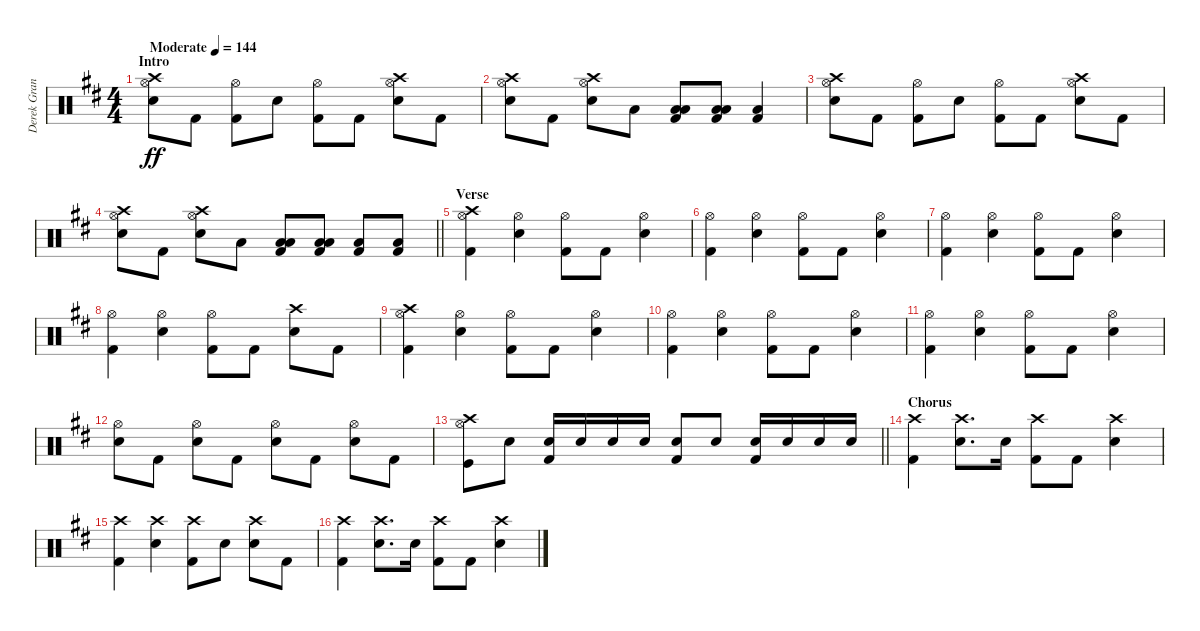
\track ("Derek Grant - Drums" "Derek Gran") {instrument percussion}
\staff {score}
\articulation defaults
\ts (4 4)
\section ("" "Intro")
\tempo (144 "Moderate")
\clef neutral
\ks d
("Crash high (hit)" "Hi-Hat (open)" "Snare (hit) 2").8{dy ff} "Kick (hit) 2".8 ("Hi-Hat (open)" "Kick (hit) 2").8 "Snare (hit) 2".8 ("Hi-Hat (open)" "Kick (hit) 2").8 "Kick (hit) 2".8 ("Crash high (hit)" "Hi-Hat (open)" "Snare (hit) 2").8 "Kick (hit) 2".8 |
("Crash high (hit)" "Hi-Hat (open)" "Snare (hit) 2").8 "Kick (hit) 2".8 ("Crash high (hit)" "Hi-Hat (open)" "Snare (hit) 2").8 "Low Tom (hit)".8 ("Low Floor Tom (hit)" "Kick (hit) 2" "Low Tom (hit)").8 ("Low Floor Tom (hit)" "Kick (hit) 2" "Low Tom (hit)").8 ("Low Floor Tom (hit)" "Kick (hit) 2").4 |
("Crash high (hit)" "Hi-Hat (open)" "Snare (hit) 2").8 "Kick (hit) 2".8 ("Hi-Hat (open)" "Kick (hit) 2").8 "Snare (hit) 2".8 ("Hi-Hat (open)" "Kick (hit) 2").8 "Kick (hit) 2".8 ("Crash high (hit)" "Hi-Hat (open)" "Snare (hit) 2").8 "Kick (hit) 2".8 |
\barLineRight lightlight
("Crash high (hit)" "Hi-Hat (open)" "Snare (hit) 2").8 "Kick (hit) 2".8 ("Crash high (hit)" "Hi-Hat (open)" "Snare (hit) 2").8 "Low Tom (hit)".8 ("Low Floor Tom (hit)" "Kick (hit) 2" "Low Tom (hit)").8 ("Low Floor Tom (hit)" "Kick (hit) 2" "Low Tom (hit)").8 ("Low Floor Tom (hit)" "Kick (hit) 2").8 ("Low Floor Tom (hit)" "Kick (hit) 2").8 |
\section ("" "Verse")
("Crash high (hit)" "Kick (hit) 2" "Hi-Hat (open)").4 ("Snare (hit) 2" "Hi-Hat (open)").4 ("Hi-Hat (open)" "Kick (hit) 2").8 "Kick (hit) 2".8 ("Snare (hit) 2" "Hi-Hat (open)").4 |
("Hi-Hat (open)" "Kick (hit) 2").4 ("Snare (hit) 2" "Hi-Hat (open)").4 ("Hi-Hat (open)" "Kick (hit) 2").8 "Kick (hit) 2".8 ("Snare (hit) 2" "Hi-Hat (open)").4 |
("Hi-Hat (open)" "Kick (hit) 2").4 ("Snare (hit) 2" "Hi-Hat (open)").4 ("Hi-Hat (open)" "Kick (hit) 2").8 "Kick (hit) 2".8 ("Snare (hit) 2" "Hi-Hat (open)").4 |
("Hi-Hat (open)" "Kick (hit) 2").4 ("Snare (hit) 2" "Hi-Hat (open)").4 ("Hi-Hat (open)" "Kick (hit) 2").8 "Kick (hit) 2".8 ("Snare (hit) 2" "Crash high (hit)").8 "Kick (hit) 2".8 |
("Crash high (hit)" "Kick (hit) 2" "Hi-Hat (open)").4 ("Snare (hit) 2" "Hi-Hat (open)").4 ("Hi-Hat (open)" "Kick (hit) 2").8 "Kick (hit) 2".8 ("Snare (hit) 2" "Hi-Hat (open)").4 |
("Hi-Hat (open)" "Kick (hit) 2").4 ("Snare (hit) 2" "Hi-Hat (open)").4 ("Hi-Hat (open)" "Kick (hit) 2").8 "Kick (hit) 2".8 ("Snare (hit) 2" "Hi-Hat (open)").4 |
("Hi-Hat (open)" "Kick (hit) 2").4 ("Snare (hit) 2" "Hi-Hat (open)").4 ("Hi-Hat (open)" "Kick (hit) 2").8 "Kick (hit) 2".8 ("Snare (hit) 2" "Hi-Hat (open)").4 |
("Snare (hit) 2" "Hi-Hat (open)").8 "Kick (hit) 2".8 ("Snare (hit) 2" "Hi-Hat (open)").8 "Kick (hit) 2".8 ("Snare (hit) 2" "Hi-Hat (open)").8 "Kick (hit) 2".8 ("Snare (hit) 2" "Hi-Hat (open)").8 "Kick (hit) 2".8 |
\barLineRight lightlight
("Hi-Hat (open)" "Crash high (hit)" "Kick (hit)").8 "Snare (hit) 2".8 ("Snare (hit) 2" "Kick (hit) 2").16 "Snare (hit) 2".16 "Snare (hit) 2".16 "Snare (hit) 2".16 ("Snare (hit) 2" "Kick (hit) 2").8 "Snare (hit) 2".8 ("Snare (hit) 2" "Kick (hit) 2").16 "Snare (hit) 2".16 "Snare (hit) 2".16 "Snare (hit) 2".16 |
\section ("" "Chorus")
("Crash high (hit)" "Kick (hit) 2").4 ("Snare (hit) 2" "Crash high (hit)").8{d} "Snare (hit) 2".16 ("Kick (hit) 2" "Crash high (hit)").8 "Kick (hit) 2".8 ("Snare (hit) 2" "Crash high (hit)").4 |
("Kick (hit) 2" "Crash high (hit)").4 ("Snare (hit) 2" "Crash high (hit)").4 ("Kick (hit) 2" "Crash high (hit)").8 "Snare (hit) 2".8 ("Snare (hit) 2" "Crash high (hit)").8 "Kick (hit) 2".8 |
("Crash high (hit)" "Kick (hit) 2").4 ("Snare (hit) 2" "Crash high (hit)").8{d} "Snare (hit) 2".16 ("Kick (hit) 2" "Crash high (hit)").8 "Kick (hit) 2".8 ("Snare (hit) 2" "Crash high (hit)").4
